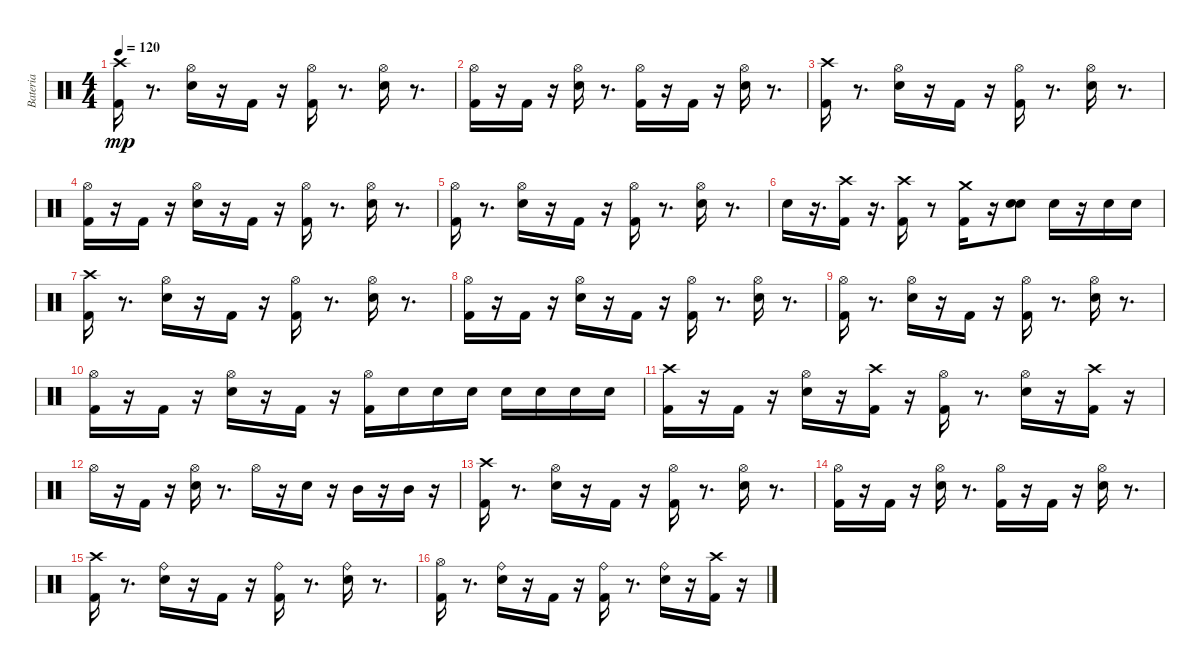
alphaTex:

\track ("Bateria" "Bateria") {instrument percussion}
\staff {score}
\articulation defaults
\ts (4 4)
\tempo 120
\clef neutral
\ks c
("Kick (hit) 2" "Crash high (hit)").16{dy mp} r.8{d} ("Snare (hit) 2" "Hi-Hat (open)").16 r.16 "Kick (hit) 2".16 r.16 ("Hi-Hat (open)" "Kick (hit) 2").16 r.8{d} ("Hi-Hat (open)" "Snare (hit) 2").16 r.8{d} |
("Hi-Hat (open)" "Kick (hit) 2").16 r.16 "Kick (hit) 2".16 r.16 ("Hi-Hat (open)" "Snare (hit) 2").16 r.8{d} ("Hi-Hat (open)" "Kick (hit) 2").16 r.16 "Kick (hit) 2".16 r.16 ("Hi-Hat (open)" "Snare (hit) 2").16 r.8{d} |
("Kick (hit) 2" "Crash high (hit)").16 r.8{d} ("Snare (hit) 2" "Hi-Hat (open)").16 r.16 "Kick (hit) 2".16 r.16 ("Hi-Hat (open)" "Kick (hit) 2").16 r.8{d} ("Hi-Hat (open)" "Snare (hit) 2").16 r.8{d} |
("Hi-Hat (open)" "Kick (hit) 2").16 r.16 "Kick (hit) 2".16 r.16 ("Hi-Hat (open)" "Snare (hit) 2").16 r.16 "Kick (hit) 2".16 r.16 ("Hi-Hat (open)" "Kick (hit) 2").16 r.8{d} ("Hi-Hat (open)" "Snare (hit) 2").16 r.8{d} |
("Hi-Hat (open)" "Kick (hit) 2").16 r.8{d} ("Snare (hit) 2" "Hi-Hat (open)").16 r.16 "Kick (hit) 2".16 r.16 ("Hi-Hat (open)" "Kick (hit) 2").16 r.8{d} ("Hi-Hat (open)" "Snare (hit) 2").16 r.8{d} |
"Snare (hit) 2".16 r.16{d} ("Crash high (hit)" "Kick (hit) 2").16 r.16{d} ("Kick (hit) 2" "Crash high (hit)").16 r.8 ("Crash medium (hit)" "Kick (hit) 2").16 r.16 ("Snare (hit) 2" "Snare (hit) 2").8 "Snare (hit) 2".16 r.16 "Snare (hit) 2".16 "Snare (hit) 2".16 |
("Kick (hit) 2" "Crash high (hit)").16 r.8{d} ("Snare (hit) 2" "Hi-Hat (open)").16 r.16 "Kick (hit) 2".16 r.16 ("Hi-Hat (open)" "Kick (hit) 2").16 r.8{d} ("Hi-Hat (open)" "Snare (hit) 2").16 r.8{d} |
("Hi-Hat (open)" "Kick (hit) 2").16 r.16 "Kick (hit) 2".16 r.16 ("Hi-Hat (open)" "Snare (hit) 2").16 r.16 "Kick (hit) 2".16 r.16 ("Hi-Hat (open)" "Kick (hit) 2").16 r.8{d} ("Hi-Hat (open)" "Snare (hit) 2").16 r.8{d} |
("Hi-Hat (open)" "Kick (hit) 2").16 r.8{d} ("Snare (hit) 2" "Hi-Hat (open)").16 r.16 "Kick (hit) 2".16 r.16 ("Hi-Hat (open)" "Kick (hit) 2").16 r.8{d} ("Hi-Hat (open)" "Snare (hit) 2").16 r.8{d} |
("Hi-Hat (open)" "Kick (hit) 2").16 r.16 "Kick (hit) 2".16 r.16 ("Hi-Hat (open)" "Snare (hit) 2").16 r.16 "Kick (hit) 2".16 r.16 ("Hi-Hat (open)" "Kick (hit) 2").16 "Snare (hit) 2".16 "Snare (hit) 2".16 "Snare (hit) 2".16 "Snare (hit) 2".16 "Snare (hit) 2".16 "Snare (hit) 2".16 "Snare (hit) 2".16 |
("Crash high (hit)" "Kick (hit) 2").16 r.16 "Kick (hit) 2".16 r.16 ("Hi-Hat (open)" "Snare (hit) 2").16 r.16 ("Crash high (hit)" "Kick (hit) 2").16 r.16 ("Hi-Hat (open)" "Kick (hit) 2").16 r.8{d} ("Hi-Hat (open)" "Snare (hit) 2").16 r.16 ("Kick (hit) 2" "Crash high (hit)").16 r.16 |
"Hi-Hat (open)".16 r.16 "Kick (hit) 2".16 r.16 ("Hi-Hat (open)" "Snare (hit) 2").16 r.8{d} "Hi-Hat (open)".16 r.16 "Snare (hit) 2".16 r.16 "Mid Tom (hit)".16 r.16 "Mid Tom (hit)".16 r.16 |
("Kick (hit) 2" "Crash high (hit)").16 r.8{d} ("Snare (hit) 2" "Hi-Hat (open)").16 r.16 "Kick (hit) 2".16 r.16 ("Hi-Hat (open)" "Kick (hit) 2").16 r.8{d} ("Hi-Hat (open)" "Snare (hit) 2").16 r.8{d} |
("Hi-Hat (open)" "Kick (hit) 2").16 r.16 "Kick (hit) 2".16 r.16 ("Hi-Hat (open)" "Snare (hit) 2").16 r.8{d} ("Hi-Hat (open)" "Kick (hit) 2").16 r.16 "Kick (hit) 2".16 r.16 ("Hi-Hat (open)" "Snare (hit) 2").16 r.8{d} |
("Kick (hit) 2" "Crash high (hit)").16 r.8{d} ("Ride (bell)" "Snare (hit) 2").16 r.16 "Kick (hit) 2".16 r.16 ("Ride (bell)" "Kick (hit) 2").16 r.8{d} ("Ride (bell)" "Snare (hit) 2").16 r.8{d} |
("Hi-Hat (open)" "Kick (hit) 2").16 r.8{d} ("Ride (bell)" "Snare (hit) 2").16 r.16 "Kick (hit) 2".16 r.16 ("Ride (bell)" "Kick (hit) 2").16 r.8{d} ("Ride (bell)" "Snare (hit) 2").16 r.16 ("Crash high (hit)" "Kick (hit) 2").16 r.16
